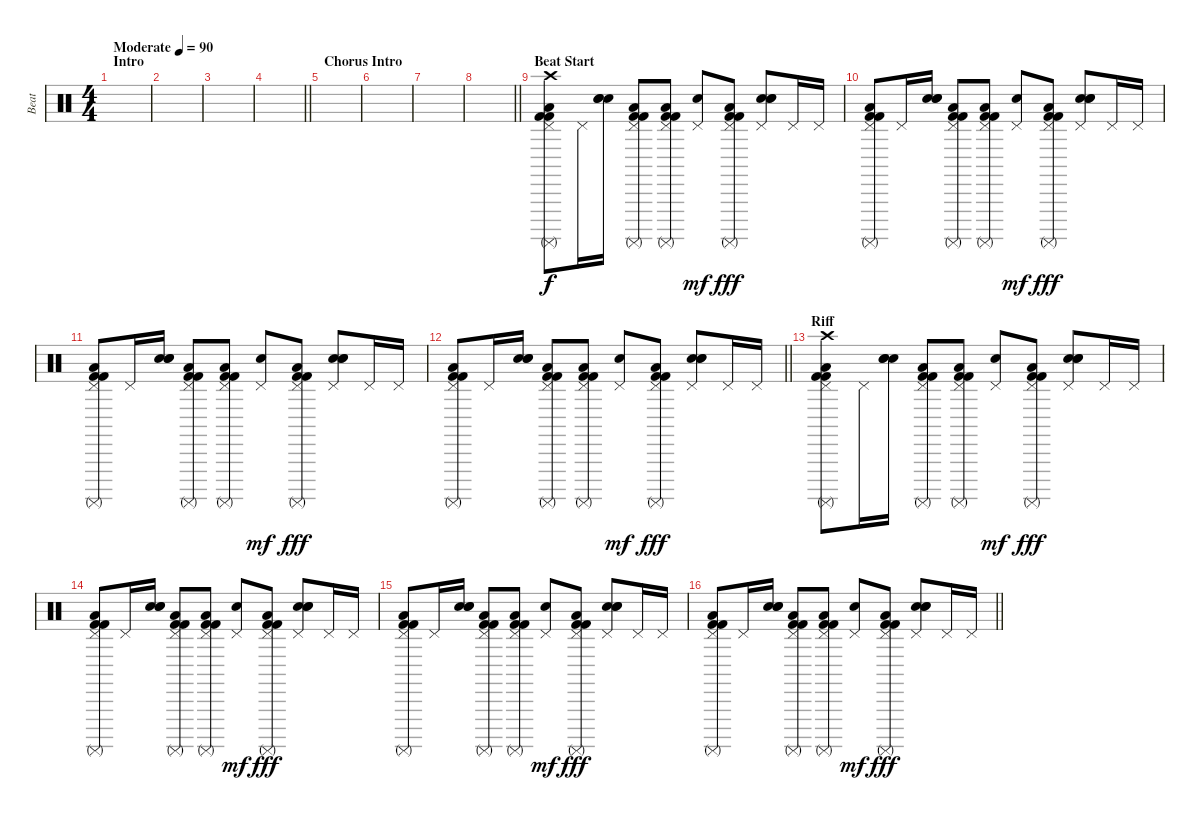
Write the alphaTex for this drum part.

\track ("Beat " "Beat ") {instrument percussion}
\staff {score}
\articulation defaults
\ts (4 4)
\section ("" "Intro")
\tempo (90 "Moderate")
\clef neutral
\ks c
|
|
|
\barLineRight lightlight
|
\section ("" "Chorus Intro")
|
|
|
\barLineRight lightlight
|
\section ("" "Beat Start")
("Crash high (hit)" "Pedal Hi-Hat (hit)" "Surdo (mute)" "Low Floor Tom (hit)" "Kick (hit) 2" "Kick (hit) 2").8 "Pedal Hi-Hat (hit)".16 ("Electric Snare (hit)" "Electric Snare (hit)" "Electric Snare (hit)").16 ("Pedal Hi-Hat (hit)" "Surdo (mute)" "Low Floor Tom (hit)" "Kick (hit) 2" "Kick (hit) 2").8 ("Pedal Hi-Hat (hit)" "Surdo (mute)" "Low Floor Tom (hit)" "Kick (hit) 2" "Kick (hit) 2").8 ("Pedal Hi-Hat (hit)" "Electric Snare (hit)").8{dy mf} ("Pedal Hi-Hat (hit)" "Surdo (mute)" "Low Floor Tom (hit)" "Kick (hit) 2" "Kick (hit) 2").8{dy fff} ("Pedal Hi-Hat (hit)" "Electric Snare (hit)" "Electric Snare (hit)" "Electric Snare (hit)").8 "Pedal Hi-Hat (hit)".16 "Pedal Hi-Hat (hit)".16 |
("Pedal Hi-Hat (hit)" "Surdo (mute)" "Low Floor Tom (hit)" "Kick (hit) 2" "Kick (hit) 2").8 "Pedal Hi-Hat (hit)".16 ("Electric Snare (hit)" "Electric Snare (hit)" "Electric Snare (hit)").16 ("Pedal Hi-Hat (hit)" "Surdo (mute)" "Low Floor Tom (hit)" "Kick (hit) 2" "Kick (hit) 2").8 ("Pedal Hi-Hat (hit)" "Surdo (mute)" "Low Floor Tom (hit)" "Kick (hit) 2" "Kick (hit) 2").8 ("Pedal Hi-Hat (hit)" "Electric Snare (hit)").8{dy mf} ("Pedal Hi-Hat (hit)" "Surdo (mute)" "Low Floor Tom (hit)" "Kick (hit) 2" "Kick (hit) 2").8{dy fff} ("Pedal Hi-Hat (hit)" "Electric Snare (hit)" "Electric Snare (hit)" "Electric Snare (hit)").8 "Pedal Hi-Hat (hit)".16 "Pedal Hi-Hat (hit)".16 |
("Pedal Hi-Hat (hit)" "Surdo (mute)" "Low Floor Tom (hit)" "Kick (hit) 2" "Kick (hit) 2").8 "Pedal Hi-Hat (hit)".16 ("Electric Snare (hit)" "Electric Snare (hit)" "Electric Snare (hit)").16 ("Pedal Hi-Hat (hit)" "Surdo (mute)" "Low Floor Tom (hit)" "Kick (hit) 2" "Kick (hit) 2").8 ("Pedal Hi-Hat (hit)" "Surdo (mute)" "Low Floor Tom (hit)" "Kick (hit) 2" "Kick (hit) 2").8 ("Pedal Hi-Hat (hit)" "Electric Snare (hit)").8{dy mf} ("Pedal Hi-Hat (hit)" "Surdo (mute)" "Low Floor Tom (hit)" "Kick (hit) 2" "Kick (hit) 2").8{dy fff} ("Pedal Hi-Hat (hit)" "Electric Snare (hit)" "Electric Snare (hit)" "Electric Snare (hit)").8 "Pedal Hi-Hat (hit)".16 "Pedal Hi-Hat (hit)".16 |
\barLineRight lightlight
("Pedal Hi-Hat (hit)" "Surdo (mute)" "Low Floor Tom (hit)" "Kick (hit) 2" "Kick (hit) 2").8 "Pedal Hi-Hat (hit)".16 ("Electric Snare (hit)" "Electric Snare (hit)" "Electric Snare (hit)").16 ("Pedal Hi-Hat (hit)" "Surdo (mute)" "Low Floor Tom (hit)" "Kick (hit) 2" "Kick (hit) 2").8 ("Pedal Hi-Hat (hit)" "Surdo (mute)" "Low Floor Tom (hit)" "Kick (hit) 2" "Kick (hit) 2").8 ("Pedal Hi-Hat (hit)" "Electric Snare (hit)").8{dy mf} ("Pedal Hi-Hat (hit)" "Surdo (mute)" "Low Floor Tom (hit)" "Kick (hit) 2" "Kick (hit) 2").8{dy fff} ("Pedal Hi-Hat (hit)" "Electric Snare (hit)" "Electric Snare (hit)" "Electric Snare (hit)").8 "Pedal Hi-Hat (hit)".16 "Pedal Hi-Hat (hit)".16 |
\section ("" "Riff")
("Crash high (hit)" "Pedal Hi-Hat (hit)" "Surdo (mute)" "Low Floor Tom (hit)" "Kick (hit) 2" "Kick (hit) 2").8 "Pedal Hi-Hat (hit)".16 ("Electric Snare (hit)" "Electric Snare (hit)" "Electric Snare (hit)").16 ("Pedal Hi-Hat (hit)" "Surdo (mute)" "Low Floor Tom (hit)" "Kick (hit) 2" "Kick (hit) 2").8 ("Pedal Hi-Hat (hit)" "Surdo (mute)" "Low Floor Tom (hit)" "Kick (hit) 2" "Kick (hit) 2").8 ("Pedal Hi-Hat (hit)" "Electric Snare (hit)").8{dy mf} ("Pedal Hi-Hat (hit)" "Surdo (mute)" "Low Floor Tom (hit)" "Kick (hit) 2" "Kick (hit) 2").8{dy fff} ("Pedal Hi-Hat (hit)" "Electric Snare (hit)" "Electric Snare (hit)" "Electric Snare (hit)").8 "Pedal Hi-Hat (hit)".16 "Pedal Hi-Hat (hit)".16 |
("Pedal Hi-Hat (hit)" "Surdo (mute)" "Low Floor Tom (hit)" "Kick (hit) 2" "Kick (hit) 2").8 "Pedal Hi-Hat (hit)".16 ("Electric Snare (hit)" "Electric Snare (hit)" "Electric Snare (hit)").16 ("Pedal Hi-Hat (hit)" "Surdo (mute)" "Low Floor Tom (hit)" "Kick (hit) 2" "Kick (hit) 2").8 ("Pedal Hi-Hat (hit)" "Surdo (mute)" "Low Floor Tom (hit)" "Kick (hit) 2" "Kick (hit) 2").8 ("Pedal Hi-Hat (hit)" "Electric Snare (hit)").8{dy mf} ("Pedal Hi-Hat (hit)" "Surdo (mute)" "Low Floor Tom (hit)" "Kick (hit) 2" "Kick (hit) 2").8{dy fff} ("Pedal Hi-Hat (hit)" "Electric Snare (hit)" "Electric Snare (hit)" "Electric Snare (hit)").8 "Pedal Hi-Hat (hit)".16 "Pedal Hi-Hat (hit)".16 |
("Pedal Hi-Hat (hit)" "Surdo (mute)" "Low Floor Tom (hit)" "Kick (hit) 2" "Kick (hit) 2").8 "Pedal Hi-Hat (hit)".16 ("Electric Snare (hit)" "Electric Snare (hit)" "Electric Snare (hit)").16 ("Pedal Hi-Hat (hit)" "Surdo (mute)" "Low Floor Tom (hit)" "Kick (hit) 2" "Kick (hit) 2").8 ("Pedal Hi-Hat (hit)" "Surdo (mute)" "Low Floor Tom (hit)" "Kick (hit) 2" "Kick (hit) 2").8 ("Pedal Hi-Hat (hit)" "Electric Snare (hit)").8{dy mf} ("Pedal Hi-Hat (hit)" "Surdo (mute)" "Low Floor Tom (hit)" "Kick (hit) 2" "Kick (hit) 2").8{dy fff} ("Pedal Hi-Hat (hit)" "Electric Snare (hit)" "Electric Snare (hit)" "Electric Snare (hit)").8 "Pedal Hi-Hat (hit)".16 "Pedal Hi-Hat (hit)".16 |
\barLineRight lightlight
("Pedal Hi-Hat (hit)" "Surdo (mute)" "Low Floor Tom (hit)" "Kick (hit) 2" "Kick (hit) 2").8 "Pedal Hi-Hat (hit)".16 ("Electric Snare (hit)" "Electric Snare (hit)" "Electric Snare (hit)").16 ("Pedal Hi-Hat (hit)" "Surdo (mute)" "Low Floor Tom (hit)" "Kick (hit) 2" "Kick (hit) 2").8 ("Pedal Hi-Hat (hit)" "Surdo (mute)" "Low Floor Tom (hit)" "Kick (hit) 2" "Kick (hit) 2").8 ("Pedal Hi-Hat (hit)" "Electric Snare (hit)").8{dy mf} ("Pedal Hi-Hat (hit)" "Surdo (mute)" "Low Floor Tom (hit)" "Kick (hit) 2" "Kick (hit) 2").8{dy fff} ("Pedal Hi-Hat (hit)" "Electric Snare (hit)" "Electric Snare (hit)" "Electric Snare (hit)").8 "Pedal Hi-Hat (hit)".16 "Pedal Hi-Hat (hit)".16
